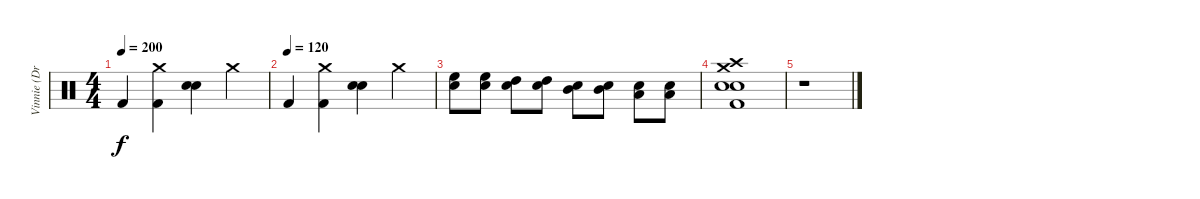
\track ("Vinnie (Drums)" "Vinnie (Dr") {instrument percussion}
\staff {score}
\articulation defaults
\ts (4 4)
\tempo 200
\clef neutral
\ks c "Kick (hit) 2".4{dy f}
("Kick (hit) 2" "Crash medium (hit)").4 ("Snare (hit) 2" "Electric Snare (hit)").4 "Crash medium (hit)".4 |
\tempo (120)
"Kick (hit) 2".4 ("Kick (hit) 2" "Crash medium (hit)").4 ("Snare (hit) 2" "Electric Snare (hit)").4 "Crash medium (hit)".4 |
("High Floor Tom (hit)" "Snare (hit) 2").8 ("High Floor Tom (hit)" "Snare (hit) 2").8 ("High Tom (hit)" "Snare (hit) 2").8 ("High Tom (hit)" "Snare (hit) 2").8 ("Mid Tom (hit)" "Snare (hit) 2").8 ("Mid Tom (hit)" "Snare (hit) 2").8 ("Low Tom (hit)" "Snare (hit) 2").8 ("Low Tom (hit)" "Snare (hit) 2").8 |
("Snare (hit) 2" "Electric Snare (hit)" "Crash medium (hit)" "Crash high (hit)" "Kick (hit) 2").1 |
r.1
